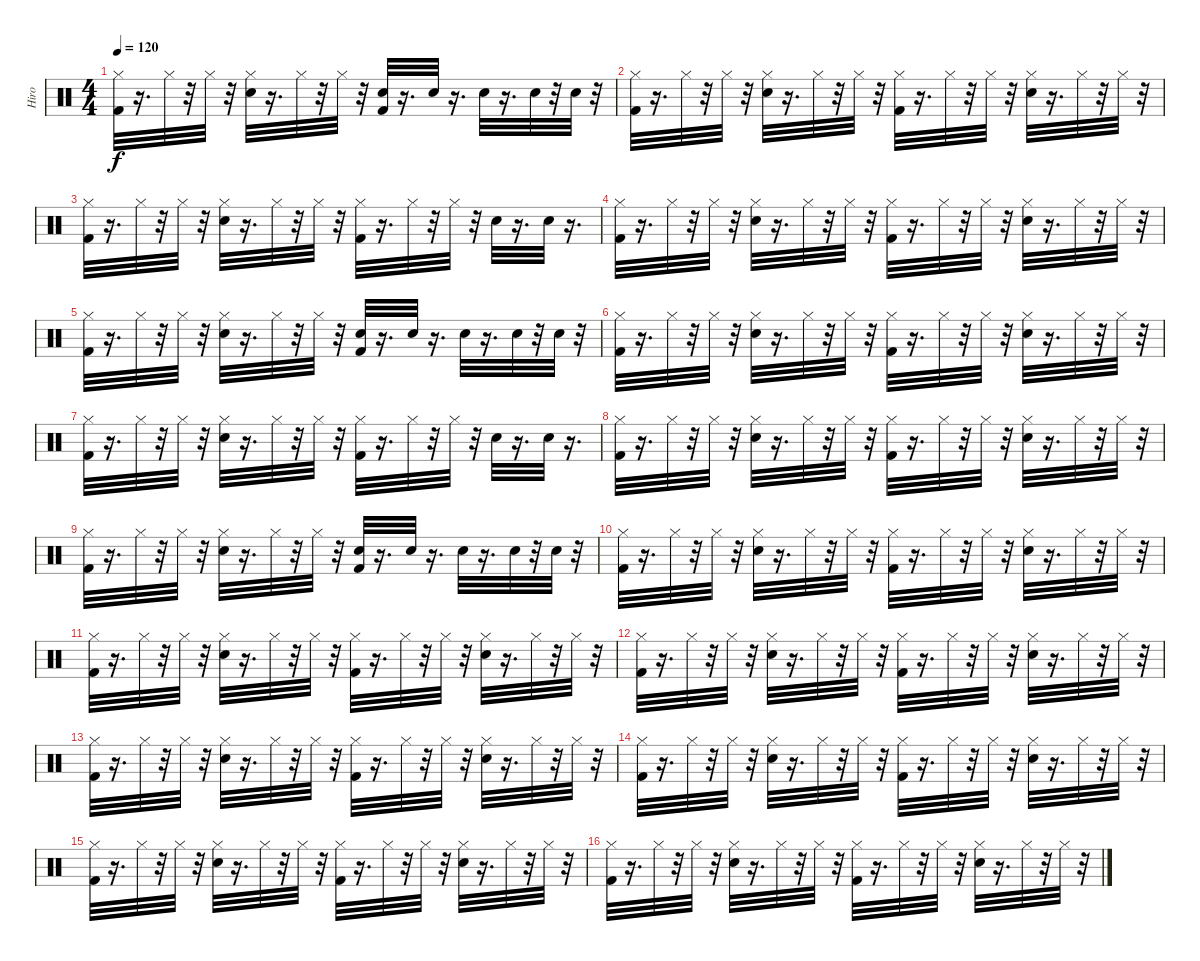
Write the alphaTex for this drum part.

\track ("Hiro" "Hiro") {instrument percussion}
\staff {score}
\articulation defaults
\ts (4 4)
\tempo 120
\clef neutral
\ks c
("Kick (hit) 2" "Hi-Hat (closed)").32{dy f} r.16{d} "Hi-Hat (closed)".32 r.32 "Hi-Hat (closed)".32 r.32 ("Hi-Hat (closed)" "Snare (hit) 2").32 r.16{d} "Hi-Hat (closed)".32 r.32 "Hi-Hat (closed)".32 r.32 ("Snare (hit) 2" "Kick (hit) 2").32 r.16{d} "Snare (hit) 2".32 r.16{d} "Snare (hit) 2".32 r.16{d} "Snare (hit) 2".32 r.32 "Snare (hit) 2".32 r.32 |
("Kick (hit) 2" "Hi-Hat (closed)").32 r.16{d} "Hi-Hat (closed)".32 r.32 "Hi-Hat (closed)".32 r.32 ("Hi-Hat (closed)" "Snare (hit) 2").32 r.16{d} "Hi-Hat (closed)".32 r.32 "Hi-Hat (closed)".32 r.32 ("Kick (hit) 2" "Hi-Hat (closed)").32 r.16{d} "Hi-Hat (closed)".32 r.32 "Hi-Hat (closed)".32 r.32 ("Hi-Hat (closed)" "Snare (hit) 2").32 r.16{d} "Hi-Hat (closed)".32 r.32 "Hi-Hat (closed)".32 r.32 |
("Kick (hit) 2" "Hi-Hat (closed)").32 r.16{d} "Hi-Hat (closed)".32 r.32 "Hi-Hat (closed)".32 r.32 ("Hi-Hat (closed)" "Snare (hit) 2").32 r.16{d} "Hi-Hat (closed)".32 r.32 "Hi-Hat (closed)".32 r.32 ("Hi-Hat (closed)" "Kick (hit) 2").32 r.16{d} "Hi-Hat (closed)".32 r.32 "Hi-Hat (closed)".32 r.32 "Snare (hit) 2".32 r.16{d} "Snare (hit) 2".32 r.16{d} |
("Kick (hit) 2" "Hi-Hat (closed)").32 r.16{d} "Hi-Hat (closed)".32 r.32 "Hi-Hat (closed)".32 r.32 ("Hi-Hat (closed)" "Snare (hit) 2").32 r.16{d} "Hi-Hat (closed)".32 r.32 "Hi-Hat (closed)".32 r.32 ("Kick (hit) 2" "Hi-Hat (closed)").32 r.16{d} "Hi-Hat (closed)".32 r.32 "Hi-Hat (closed)".32 r.32 ("Hi-Hat (closed)" "Snare (hit) 2").32 r.16{d} "Hi-Hat (closed)".32 r.32 "Hi-Hat (closed)".32 r.32 |
("Kick (hit) 2" "Hi-Hat (closed)").32 r.16{d} "Hi-Hat (closed)".32 r.32 "Hi-Hat (closed)".32 r.32 ("Hi-Hat (closed)" "Snare (hit) 2").32 r.16{d} "Hi-Hat (closed)".32 r.32 "Hi-Hat (closed)".32 r.32 ("Snare (hit) 2" "Kick (hit) 2").32 r.16{d} "Snare (hit) 2".32 r.16{d} "Snare (hit) 2".32 r.16{d} "Snare (hit) 2".32 r.32 "Snare (hit) 2".32 r.32 |
("Kick (hit) 2" "Hi-Hat (closed)").32 r.16{d} "Hi-Hat (closed)".32 r.32 "Hi-Hat (closed)".32 r.32 ("Hi-Hat (closed)" "Snare (hit) 2").32 r.16{d} "Hi-Hat (closed)".32 r.32 "Hi-Hat (closed)".32 r.32 ("Hi-Hat (closed)" "Kick (hit) 2").32 r.16{d} "Hi-Hat (closed)".32 r.32 "Hi-Hat (closed)".32 r.32 ("Hi-Hat (closed)" "Snare (hit) 2").32 r.16{d} "Hi-Hat (closed)".32 r.32 "Hi-Hat (closed)".32 r.32 |
("Kick (hit) 2" "Hi-Hat (closed)").32 r.16{d} "Hi-Hat (closed)".32 r.32 "Hi-Hat (closed)".32 r.32 ("Hi-Hat (closed)" "Snare (hit) 2").32 r.16{d} "Hi-Hat (closed)".32 r.32 "Hi-Hat (closed)".32 r.32 ("Kick (hit) 2" "Hi-Hat (closed)").32 r.16{d} "Hi-Hat (closed)".32 r.32 "Hi-Hat (closed)".32 r.32 "Snare (hit) 2".32 r.16{d} "Snare (hit) 2".32 r.16{d} |
("Kick (hit) 2" "Hi-Hat (closed)").32 r.16{d} "Hi-Hat (closed)".32 r.32 "Hi-Hat (closed)".32 r.32 ("Hi-Hat (closed)" "Snare (hit) 2").32 r.16{d} "Hi-Hat (closed)".32 r.32 "Hi-Hat (closed)".32 r.32 ("Hi-Hat (closed)" "Kick (hit) 2").32 r.16{d} "Hi-Hat (closed)".32 r.32 "Hi-Hat (closed)".32 r.32 ("Hi-Hat (closed)" "Snare (hit) 2").32 r.16{d} "Hi-Hat (closed)".32 r.32 "Hi-Hat (closed)".32 r.32 |
("Kick (hit) 2" "Hi-Hat (closed)").32 r.16{d} "Hi-Hat (closed)".32 r.32 "Hi-Hat (closed)".32 r.32 ("Hi-Hat (closed)" "Snare (hit) 2").32 r.16{d} "Hi-Hat (closed)".32 r.32 "Hi-Hat (closed)".32 r.32 ("Kick (hit) 2" "Snare (hit) 2").32 r.16{d} "Snare (hit) 2".32 r.16{d} "Snare (hit) 2".32 r.16{d} "Snare (hit) 2".32 r.32 "Snare (hit) 2".32 r.32 |
("Kick (hit) 2" "Hi-Hat (closed)").32 r.16{d} "Hi-Hat (closed)".32 r.32 "Hi-Hat (closed)".32 r.32 ("Hi-Hat (closed)" "Snare (hit) 2").32 r.16{d} "Hi-Hat (closed)".32 r.32 "Hi-Hat (closed)".32 r.32 ("Kick (hit) 2" "Hi-Hat (closed)").32 r.16{d} "Hi-Hat (closed)".32 r.32 "Hi-Hat (closed)".32 r.32 ("Hi-Hat (closed)" "Snare (hit) 2").32 r.16{d} "Hi-Hat (closed)".32 r.32 "Hi-Hat (closed)".32 r.32 |
("Kick (hit) 2" "Hi-Hat (closed)").32 r.16{d} "Hi-Hat (closed)".32 r.32 "Hi-Hat (closed)".32 r.32 ("Hi-Hat (closed)" "Snare (hit) 2").32 r.16{d} "Hi-Hat (closed)".32 r.32 "Hi-Hat (closed)".32 r.32 ("Hi-Hat (closed)" "Kick (hit) 2").32 r.16{d} "Hi-Hat (closed)".32 r.32 "Hi-Hat (closed)".32 r.32 ("Hi-Hat (closed)" "Snare (hit) 2").32 r.16{d} "Hi-Hat (closed)".32 r.32 "Hi-Hat (closed)".32 r.32 |
("Kick (hit) 2" "Hi-Hat (closed)").32 r.16{d} "Hi-Hat (closed)".32 r.32 "Hi-Hat (closed)".32 r.32 ("Hi-Hat (closed)" "Snare (hit) 2").32 r.16{d} "Hi-Hat (closed)".32 r.32 "Hi-Hat (closed)".32 r.32 ("Hi-Hat (closed)" "Kick (hit) 2").32 r.16{d} "Hi-Hat (closed)".32 r.32 "Hi-Hat (closed)".32 r.32 ("Hi-Hat (closed)" "Snare (hit) 2").32 r.16{d} "Hi-Hat (closed)".32 r.32 "Hi-Hat (closed)".32 r.32 |
("Kick (hit) 2" "Hi-Hat (closed)").32 r.16{d} "Hi-Hat (closed)".32 r.32 "Hi-Hat (closed)".32 r.32 ("Hi-Hat (closed)" "Snare (hit) 2").32 r.16{d} "Hi-Hat (closed)".32 r.32 "Hi-Hat (closed)".32 r.32 ("Kick (hit) 2" "Hi-Hat (closed)").32 r.16{d} "Hi-Hat (closed)".32 r.32 "Hi-Hat (closed)".32 r.32 ("Hi-Hat (closed)" "Snare (hit) 2").32 r.16{d} "Hi-Hat (closed)".32 r.32 "Hi-Hat (closed)".32 r.32 |
("Kick (hit) 2" "Hi-Hat (closed)").32 r.16{d} "Hi-Hat (closed)".32 r.32 "Hi-Hat (closed)".32 r.32 ("Hi-Hat (closed)" "Snare (hit) 2").32 r.16{d} "Hi-Hat (closed)".32 r.32 "Hi-Hat (closed)".32 r.32 ("Hi-Hat (closed)" "Kick (hit) 2").32 r.16{d} "Hi-Hat (closed)".32 r.32 "Hi-Hat (closed)".32 r.32 ("Hi-Hat (closed)" "Snare (hit) 2").32 r.16{d} "Hi-Hat (closed)".32 r.32 "Hi-Hat (closed)".32 r.32 |
("Kick (hit) 2" "Hi-Hat (closed)").32 r.16{d} "Hi-Hat (closed)".32 r.32 "Hi-Hat (closed)".32 r.32 ("Hi-Hat (closed)" "Snare (hit) 2").32 r.16{d} "Hi-Hat (closed)".32 r.32 "Hi-Hat (closed)".32 r.32 ("Hi-Hat (closed)" "Kick (hit) 2").32 r.16{d} "Hi-Hat (closed)".32 r.32 "Hi-Hat (closed)".32 r.32 ("Hi-Hat (closed)" "Snare (hit) 2").32 r.16{d} "Hi-Hat (closed)".32 r.32 "Hi-Hat (closed)".32 r.32 |
("Kick (hit) 2" "Hi-Hat (closed)").32 r.16{d} "Hi-Hat (closed)".32 r.32 "Hi-Hat (closed)".32 r.32 ("Hi-Hat (closed)" "Snare (hit) 2").32 r.16{d} "Hi-Hat (closed)".32 r.32 "Hi-Hat (closed)".32 r.32 ("Hi-Hat (closed)" "Kick (hit) 2").32 r.16{d} "Hi-Hat (closed)".32 r.32 "Hi-Hat (closed)".32 r.32 ("Hi-Hat (closed)" "Snare (hit) 2").32 r.16{d} "Hi-Hat (closed)".32 r.32 "Hi-Hat (closed)".32 r.32
